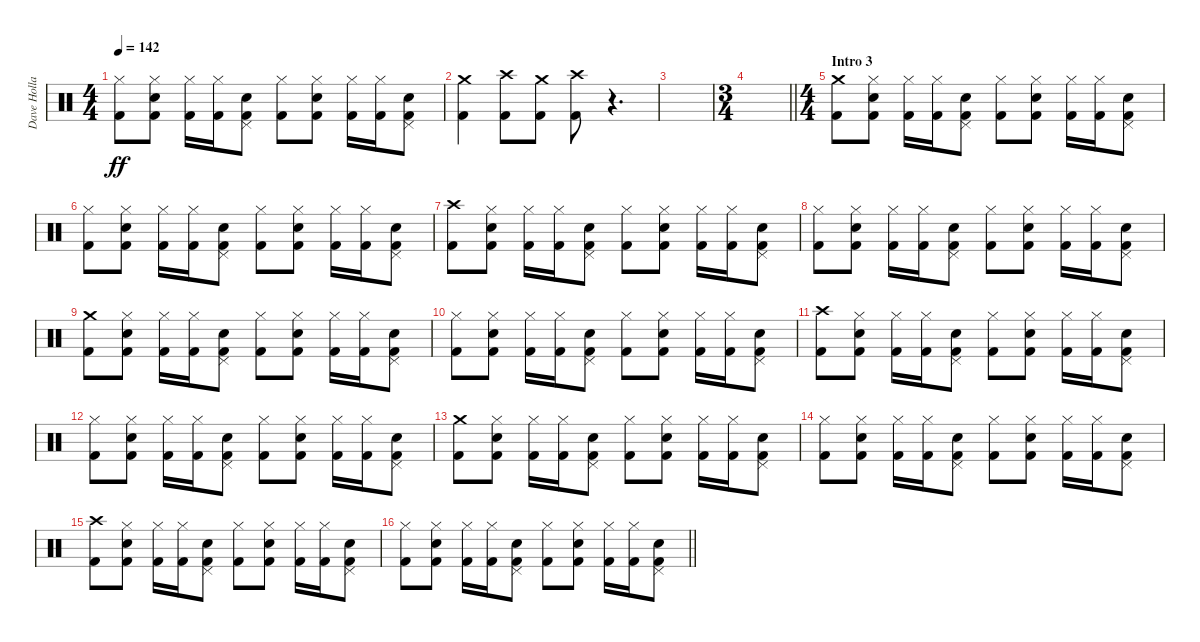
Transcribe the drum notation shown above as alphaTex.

\track ("Dave Holland" "Dave Holla") {instrument percussion}
\staff {score}
\articulation defaults
\ts (4 4)
\tempo 142
\clef neutral
\ks c
("Hi-Hat (closed)" "Kick (hit) 2").8{dy ff} ("Hi-Hat (closed)" "Snare (hit) 2" "Kick (hit) 2").8 ("Hi-Hat (closed)" "Kick (hit) 2").16 ("Hi-Hat (closed)" "Kick (hit) 2").16 ("Pedal Hi-Hat (hit)" "Snare (hit) 2" "Kick (hit) 2").8 ("Hi-Hat (closed)" "Kick (hit) 2").8 ("Hi-Hat (closed)" "Snare (hit) 2" "Kick (hit) 2").8 ("Hi-Hat (closed)" "Kick (hit) 2").16 ("Hi-Hat (closed)" "Kick (hit) 2").16 ("Pedal Hi-Hat (hit)" "Snare (hit) 2" "Kick (hit) 2").8 |
("Crash medium (hit)" "Kick (hit) 2").4 ("Crash high (hit)" "Kick (hit) 2").8 ("Crash medium (hit)" "Kick (hit) 2").8 ("Crash high (hit)" "Kick (hit) 2").8 r.4{d} |
|
\ts (3 4)
\barLineRight lightlight
|
\ts (4 4)
\section ("" "Intro 3")
("Crash medium (hit)" "Kick (hit) 2").8 ("Hi-Hat (closed)" "Snare (hit) 2" "Kick (hit) 2").8 ("Hi-Hat (closed)" "Kick (hit) 2").16 ("Hi-Hat (closed)" "Kick (hit) 2").16 ("Pedal Hi-Hat (hit)" "Snare (hit) 2" "Kick (hit) 2").8 ("Hi-Hat (closed)" "Kick (hit) 2").8 ("Hi-Hat (closed)" "Snare (hit) 2" "Kick (hit) 2").8 ("Hi-Hat (closed)" "Kick (hit) 2").16 ("Hi-Hat (closed)" "Kick (hit) 2").16 ("Pedal Hi-Hat (hit)" "Snare (hit) 2" "Kick (hit) 2").8 |
("Hi-Hat (closed)" "Kick (hit) 2").8 ("Hi-Hat (closed)" "Snare (hit) 2" "Kick (hit) 2").8 ("Hi-Hat (closed)" "Kick (hit) 2").16 ("Hi-Hat (closed)" "Kick (hit) 2").16 ("Pedal Hi-Hat (hit)" "Snare (hit) 2" "Kick (hit) 2").8 ("Hi-Hat (closed)" "Kick (hit) 2").8 ("Hi-Hat (closed)" "Snare (hit) 2" "Kick (hit) 2").8 ("Hi-Hat (closed)" "Kick (hit) 2").16 ("Hi-Hat (closed)" "Kick (hit) 2").16 ("Pedal Hi-Hat (hit)" "Snare (hit) 2" "Kick (hit) 2").8 |
("Crash high (hit)" "Kick (hit) 2").8 ("Hi-Hat (closed)" "Snare (hit) 2" "Kick (hit) 2").8 ("Hi-Hat (closed)" "Kick (hit) 2").16 ("Hi-Hat (closed)" "Kick (hit) 2").16 ("Pedal Hi-Hat (hit)" "Snare (hit) 2" "Kick (hit) 2").8 ("Hi-Hat (closed)" "Kick (hit) 2").8 ("Hi-Hat (closed)" "Snare (hit) 2" "Kick (hit) 2").8 ("Hi-Hat (closed)" "Kick (hit) 2").16 ("Hi-Hat (closed)" "Kick (hit) 2").16 ("Pedal Hi-Hat (hit)" "Snare (hit) 2" "Kick (hit) 2").8 |
("Hi-Hat (closed)" "Kick (hit) 2").8 ("Hi-Hat (closed)" "Snare (hit) 2" "Kick (hit) 2").8 ("Hi-Hat (closed)" "Kick (hit) 2").16 ("Hi-Hat (closed)" "Kick (hit) 2").16 ("Pedal Hi-Hat (hit)" "Snare (hit) 2" "Kick (hit) 2").8 ("Hi-Hat (closed)" "Kick (hit) 2").8 ("Hi-Hat (closed)" "Snare (hit) 2" "Kick (hit) 2").8 ("Hi-Hat (closed)" "Kick (hit) 2").16 ("Hi-Hat (closed)" "Kick (hit) 2").16 ("Pedal Hi-Hat (hit)" "Snare (hit) 2" "Kick (hit) 2").8 |
("Crash medium (hit)" "Kick (hit) 2").8 ("Hi-Hat (closed)" "Snare (hit) 2" "Kick (hit) 2").8 ("Hi-Hat (closed)" "Kick (hit) 2").16 ("Hi-Hat (closed)" "Kick (hit) 2").16 ("Pedal Hi-Hat (hit)" "Snare (hit) 2" "Kick (hit) 2").8 ("Hi-Hat (closed)" "Kick (hit) 2").8 ("Hi-Hat (closed)" "Snare (hit) 2" "Kick (hit) 2").8 ("Hi-Hat (closed)" "Kick (hit) 2").16 ("Hi-Hat (closed)" "Kick (hit) 2").16 ("Pedal Hi-Hat (hit)" "Snare (hit) 2" "Kick (hit) 2").8 |
("Hi-Hat (closed)" "Kick (hit) 2").8 ("Hi-Hat (closed)" "Snare (hit) 2" "Kick (hit) 2").8 ("Hi-Hat (closed)" "Kick (hit) 2").16 ("Hi-Hat (closed)" "Kick (hit) 2").16 ("Pedal Hi-Hat (hit)" "Snare (hit) 2" "Kick (hit) 2").8 ("Hi-Hat (closed)" "Kick (hit) 2").8 ("Hi-Hat (closed)" "Snare (hit) 2" "Kick (hit) 2").8 ("Hi-Hat (closed)" "Kick (hit) 2").16 ("Hi-Hat (closed)" "Kick (hit) 2").16 ("Pedal Hi-Hat (hit)" "Snare (hit) 2" "Kick (hit) 2").8 |
("Crash high (hit)" "Kick (hit) 2").8 ("Hi-Hat (closed)" "Snare (hit) 2" "Kick (hit) 2").8 ("Hi-Hat (closed)" "Kick (hit) 2").16 ("Hi-Hat (closed)" "Kick (hit) 2").16 ("Pedal Hi-Hat (hit)" "Snare (hit) 2" "Kick (hit) 2").8 ("Hi-Hat (closed)" "Kick (hit) 2").8 ("Hi-Hat (closed)" "Snare (hit) 2" "Kick (hit) 2").8 ("Hi-Hat (closed)" "Kick (hit) 2").16 ("Hi-Hat (closed)" "Kick (hit) 2").16 ("Pedal Hi-Hat (hit)" "Snare (hit) 2" "Kick (hit) 2").8 |
("Hi-Hat (closed)" "Kick (hit) 2").8 ("Hi-Hat (closed)" "Snare (hit) 2" "Kick (hit) 2").8 ("Hi-Hat (closed)" "Kick (hit) 2").16 ("Hi-Hat (closed)" "Kick (hit) 2").16 ("Pedal Hi-Hat (hit)" "Snare (hit) 2" "Kick (hit) 2").8 ("Hi-Hat (closed)" "Kick (hit) 2").8 ("Hi-Hat (closed)" "Snare (hit) 2" "Kick (hit) 2").8 ("Hi-Hat (closed)" "Kick (hit) 2").16 ("Hi-Hat (closed)" "Kick (hit) 2").16 ("Pedal Hi-Hat (hit)" "Snare (hit) 2" "Kick (hit) 2").8 |
("Crash medium (hit)" "Kick (hit) 2").8 ("Hi-Hat (closed)" "Snare (hit) 2" "Kick (hit) 2").8 ("Hi-Hat (closed)" "Kick (hit) 2").16 ("Hi-Hat (closed)" "Kick (hit) 2").16 ("Pedal Hi-Hat (hit)" "Snare (hit) 2" "Kick (hit) 2").8 ("Hi-Hat (closed)" "Kick (hit) 2").8 ("Hi-Hat (closed)" "Snare (hit) 2" "Kick (hit) 2").8 ("Hi-Hat (closed)" "Kick (hit) 2").16 ("Hi-Hat (closed)" "Kick (hit) 2").16 ("Pedal Hi-Hat (hit)" "Snare (hit) 2" "Kick (hit) 2").8 |
("Hi-Hat (closed)" "Kick (hit) 2").8 ("Hi-Hat (closed)" "Snare (hit) 2" "Kick (hit) 2").8 ("Hi-Hat (closed)" "Kick (hit) 2").16 ("Hi-Hat (closed)" "Kick (hit) 2").16 ("Pedal Hi-Hat (hit)" "Snare (hit) 2" "Kick (hit) 2").8 ("Hi-Hat (closed)" "Kick (hit) 2").8 ("Hi-Hat (closed)" "Snare (hit) 2" "Kick (hit) 2").8 ("Hi-Hat (closed)" "Kick (hit) 2").16 ("Hi-Hat (closed)" "Kick (hit) 2").16 ("Pedal Hi-Hat (hit)" "Snare (hit) 2" "Kick (hit) 2").8 |
("Crash high (hit)" "Kick (hit) 2").8 ("Hi-Hat (closed)" "Snare (hit) 2" "Kick (hit) 2").8 ("Hi-Hat (closed)" "Kick (hit) 2").16 ("Hi-Hat (closed)" "Kick (hit) 2").16 ("Pedal Hi-Hat (hit)" "Snare (hit) 2" "Kick (hit) 2").8 ("Hi-Hat (closed)" "Kick (hit) 2").8 ("Hi-Hat (closed)" "Snare (hit) 2" "Kick (hit) 2").8 ("Hi-Hat (closed)" "Kick (hit) 2").16 ("Hi-Hat (closed)" "Kick (hit) 2").16 ("Pedal Hi-Hat (hit)" "Snare (hit) 2" "Kick (hit) 2").8 |
\barLineRight lightlight
("Hi-Hat (closed)" "Kick (hit) 2").8 ("Hi-Hat (closed)" "Snare (hit) 2" "Kick (hit) 2").8 ("Hi-Hat (closed)" "Kick (hit) 2").16 ("Hi-Hat (closed)" "Kick (hit) 2").16 ("Pedal Hi-Hat (hit)" "Snare (hit) 2" "Kick (hit) 2").8 ("Hi-Hat (closed)" "Kick (hit) 2").8 ("Hi-Hat (closed)" "Snare (hit) 2" "Kick (hit) 2").8 ("Hi-Hat (closed)" "Kick (hit) 2").16 ("Hi-Hat (closed)" "Kick (hit) 2").16 ("Pedal Hi-Hat (hit)" "Snare (hit) 2" "Kick (hit) 2").8
